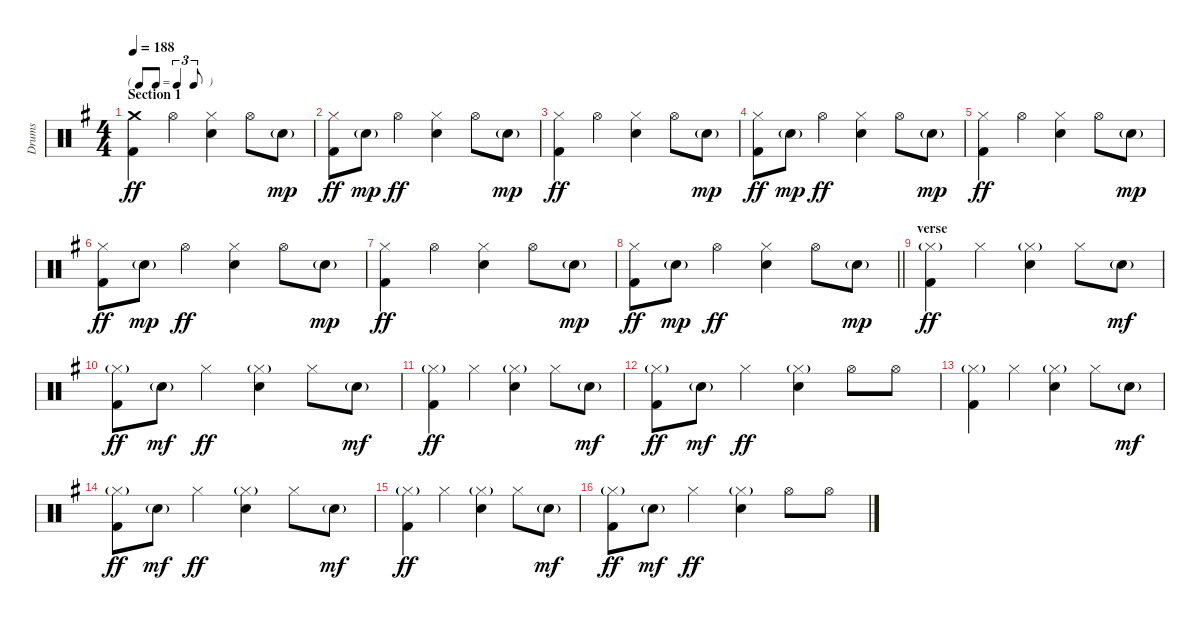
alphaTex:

\track ("Drums" "Drums") {instrument percussion}
\staff {score}
\articulation defaults
\ts (4 4)
\tf triplet8th
\section ("" "Section 1")
\tempo 188
\clef neutral
\ks g
("Crash medium (hit)" "Kick (hit) 2").4{dy ff} "Hi-Hat (open)".4 ("Hi-Hat (closed)" "Snare (hit) 2").4 "Hi-Hat (open)".8 "Snare (hit) 2"{g}.8{dy mp} |
("Hi-Hat (closed)" "Kick (hit) 2").8{dy ff} "Snare (hit) 2"{g}.8{dy mp} "Hi-Hat (open)".4{dy ff} ("Hi-Hat (closed)" "Snare (hit) 2").4 "Hi-Hat (open)".8 "Snare (hit) 2"{g}.8{dy mp} |
("Hi-Hat (closed)" "Kick (hit) 2").4{dy ff} "Hi-Hat (open)".4 ("Hi-Hat (closed)" "Snare (hit) 2").4 "Hi-Hat (open)".8 "Snare (hit) 2"{g}.8{dy mp} |
("Hi-Hat (closed)" "Kick (hit) 2").8{dy ff} "Snare (hit) 2"{g}.8{dy mp} "Hi-Hat (open)".4{dy ff} ("Hi-Hat (closed)" "Snare (hit) 2").4 "Hi-Hat (open)".8 "Snare (hit) 2"{g}.8{dy mp} |
("Hi-Hat (closed)" "Kick (hit) 2").4{dy ff} "Hi-Hat (open)".4 ("Hi-Hat (closed)" "Snare (hit) 2").4 "Hi-Hat (open)".8 "Snare (hit) 2"{g}.8{dy mp} |
("Hi-Hat (closed)" "Kick (hit) 2").8{dy ff} "Snare (hit) 2"{g}.8{dy mp} "Hi-Hat (open)".4{dy ff} ("Hi-Hat (closed)" "Snare (hit) 2").4 "Hi-Hat (open)".8 "Snare (hit) 2"{g}.8{dy mp} |
("Hi-Hat (closed)" "Kick (hit) 2").4{dy ff} "Hi-Hat (open)".4 ("Hi-Hat (closed)" "Snare (hit) 2").4 "Hi-Hat (open)".8 "Snare (hit) 2"{g}.8{dy mp} |
\barLineRight lightlight
("Hi-Hat (closed)" "Kick (hit) 2").8{dy ff} "Snare (hit) 2"{g}.8{dy mp} "Hi-Hat (open)".4{dy ff} ("Hi-Hat (closed)" "Snare (hit) 2").4 "Hi-Hat (open)".8 "Snare (hit) 2"{g}.8{dy mp} |
\section ("" "verse")
("Hi-Hat (closed)"{g} "Kick (hit) 2").4{dy ff} "Hi-Hat (closed)".4 ("Hi-Hat (closed)"{g} "Snare (hit) 2").4 "Hi-Hat (closed)".8 "Snare (hit) 2"{g}.8{dy mf} |
("Hi-Hat (closed)"{g} "Kick (hit) 2").8{dy ff} "Snare (hit) 2"{g}.8{dy mf} "Hi-Hat (closed)".4{dy ff} ("Hi-Hat (closed)"{g} "Snare (hit) 2").4 "Hi-Hat (closed)".8 "Snare (hit) 2"{g}.8{dy mf} |
("Hi-Hat (closed)"{g} "Kick (hit) 2").4{dy ff} "Hi-Hat (closed)".4 ("Hi-Hat (closed)"{g} "Snare (hit) 2").4 "Hi-Hat (closed)".8 "Snare (hit) 2"{g}.8{dy mf} |
("Hi-Hat (closed)"{g} "Kick (hit) 2").8{dy ff} "Snare (hit) 2"{g}.8{dy mf} "Hi-Hat (closed)".4{dy ff} ("Hi-Hat (closed)"{g} "Snare (hit) 2").4 "Hi-Hat (open)".8 "Hi-Hat (open)".8 |
("Hi-Hat (closed)"{g} "Kick (hit) 2").4 "Hi-Hat (closed)".4 ("Hi-Hat (closed)"{g} "Snare (hit) 2").4 "Hi-Hat (closed)".8 "Snare (hit) 2"{g}.8{dy mf} |
("Hi-Hat (closed)"{g} "Kick (hit) 2").8{dy ff} "Snare (hit) 2"{g}.8{dy mf} "Hi-Hat (closed)".4{dy ff} ("Hi-Hat (closed)"{g} "Snare (hit) 2").4 "Hi-Hat (closed)".8 "Snare (hit) 2"{g}.8{dy mf} |
("Hi-Hat (closed)"{g} "Kick (hit) 2").4{dy ff} "Hi-Hat (closed)".4 ("Hi-Hat (closed)"{g} "Snare (hit) 2").4 "Hi-Hat (closed)".8 "Snare (hit) 2"{g}.8{dy mf} |
("Hi-Hat (closed)"{g} "Kick (hit) 2").8{dy ff} "Snare (hit) 2"{g}.8{dy mf} "Hi-Hat (closed)".4{dy ff} ("Hi-Hat (closed)"{g} "Snare (hit) 2").4 "Hi-Hat (open)".8 "Hi-Hat (open)".8
